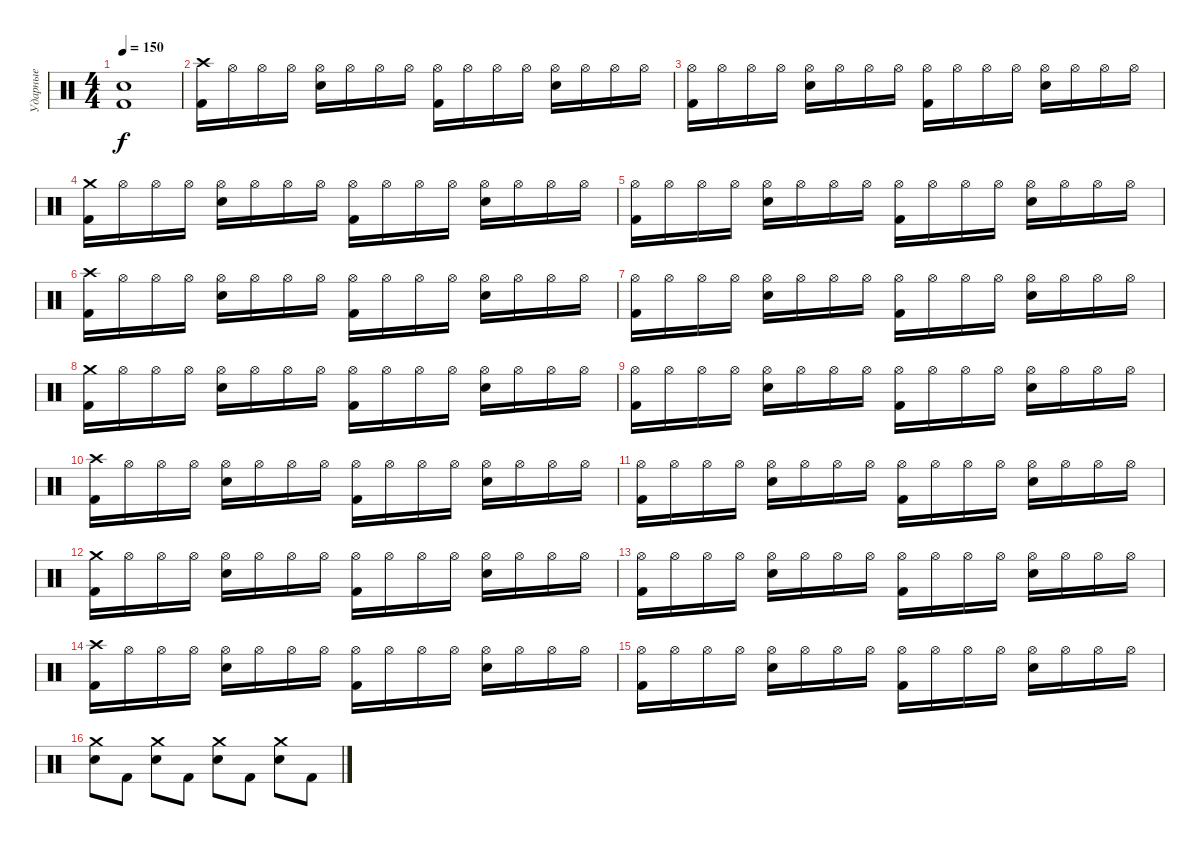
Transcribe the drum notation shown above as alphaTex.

\track ("Ударные" "Ударные") {instrument percussion}
\staff {score}
\articulation defaults
\ts (4 4)
\tempo 150
\clef neutral
\ks c
("Electric Snare (hit)" "Kick (hit) 2").1{dy f} |
("Crash high (hit)" "Kick (hit) 2").16 "Hi-Hat (open)".16 "Hi-Hat (open)".16 "Hi-Hat (open)".16 ("Hi-Hat (open)" "Electric Snare (hit)").16 "Hi-Hat (open)".16 "Hi-Hat (open)".16 "Hi-Hat (open)".16 ("Hi-Hat (open)" "Kick (hit) 2").16 "Hi-Hat (open)".16 "Hi-Hat (open)".16 "Hi-Hat (open)".16 ("Hi-Hat (open)" "Electric Snare (hit)").16 "Hi-Hat (open)".16 "Hi-Hat (open)".16 "Hi-Hat (open)".16 |
("Hi-Hat (open)" "Kick (hit) 2").16 "Hi-Hat (open)".16 "Hi-Hat (open)".16 "Hi-Hat (open)".16 ("Hi-Hat (open)" "Electric Snare (hit)").16 "Hi-Hat (open)".16 "Hi-Hat (open)".16 "Hi-Hat (open)".16 ("Hi-Hat (open)" "Kick (hit) 2").16 "Hi-Hat (open)".16 "Hi-Hat (open)".16 "Hi-Hat (open)".16 ("Hi-Hat (open)" "Electric Snare (hit)").16 "Hi-Hat (open)".16 "Hi-Hat (open)".16 "Hi-Hat (open)".16 |
("Crash medium (hit)" "Kick (hit) 2").16 "Hi-Hat (open)".16 "Hi-Hat (open)".16 "Hi-Hat (open)".16 ("Hi-Hat (open)" "Electric Snare (hit)").16 "Hi-Hat (open)".16 "Hi-Hat (open)".16 "Hi-Hat (open)".16 ("Hi-Hat (open)" "Kick (hit) 2").16 "Hi-Hat (open)".16 "Hi-Hat (open)".16 "Hi-Hat (open)".16 ("Hi-Hat (open)" "Electric Snare (hit)").16 "Hi-Hat (open)".16 "Hi-Hat (open)".16 "Hi-Hat (open)".16 |
("Hi-Hat (open)" "Kick (hit) 2").16 "Hi-Hat (open)".16 "Hi-Hat (open)".16 "Hi-Hat (open)".16 ("Hi-Hat (open)" "Electric Snare (hit)").16 "Hi-Hat (open)".16 "Hi-Hat (open)".16 "Hi-Hat (open)".16 ("Hi-Hat (open)" "Kick (hit) 2").16 "Hi-Hat (open)".16 "Hi-Hat (open)".16 "Hi-Hat (open)".16 ("Hi-Hat (open)" "Electric Snare (hit)").16 "Hi-Hat (open)".16 "Hi-Hat (open)".16 "Hi-Hat (open)".16 |
("Crash high (hit)" "Kick (hit) 2").16 "Hi-Hat (open)".16 "Hi-Hat (open)".16 "Hi-Hat (open)".16 ("Hi-Hat (open)" "Electric Snare (hit)").16 "Hi-Hat (open)".16 "Hi-Hat (open)".16 "Hi-Hat (open)".16 ("Hi-Hat (open)" "Kick (hit) 2").16 "Hi-Hat (open)".16 "Hi-Hat (open)".16 "Hi-Hat (open)".16 ("Hi-Hat (open)" "Electric Snare (hit)").16 "Hi-Hat (open)".16 "Hi-Hat (open)".16 "Hi-Hat (open)".16 |
("Hi-Hat (open)" "Kick (hit) 2").16 "Hi-Hat (open)".16 "Hi-Hat (open)".16 "Hi-Hat (open)".16 ("Hi-Hat (open)" "Electric Snare (hit)").16 "Hi-Hat (open)".16 "Hi-Hat (open)".16 "Hi-Hat (open)".16 ("Hi-Hat (open)" "Kick (hit) 2").16 "Hi-Hat (open)".16 "Hi-Hat (open)".16 "Hi-Hat (open)".16 ("Hi-Hat (open)" "Electric Snare (hit)").16 "Hi-Hat (open)".16 "Hi-Hat (open)".16 "Hi-Hat (open)".16 |
("Crash medium (hit)" "Kick (hit) 2").16 "Hi-Hat (open)".16 "Hi-Hat (open)".16 "Hi-Hat (open)".16 ("Hi-Hat (open)" "Electric Snare (hit)").16 "Hi-Hat (open)".16 "Hi-Hat (open)".16 "Hi-Hat (open)".16 ("Hi-Hat (open)" "Kick (hit) 2").16 "Hi-Hat (open)".16 "Hi-Hat (open)".16 "Hi-Hat (open)".16 ("Hi-Hat (open)" "Electric Snare (hit)").16 "Hi-Hat (open)".16 "Hi-Hat (open)".16 "Hi-Hat (open)".16 |
("Hi-Hat (open)" "Kick (hit) 2").16 "Hi-Hat (open)".16 "Hi-Hat (open)".16 "Hi-Hat (open)".16 ("Hi-Hat (open)" "Electric Snare (hit)").16 "Hi-Hat (open)".16 "Hi-Hat (open)".16 "Hi-Hat (open)".16 ("Hi-Hat (open)" "Kick (hit) 2").16 "Hi-Hat (open)".16 "Hi-Hat (open)".16 "Hi-Hat (open)".16 ("Hi-Hat (open)" "Electric Snare (hit)").16 "Hi-Hat (open)".16 "Hi-Hat (open)".16 "Hi-Hat (open)".16 |
("Crash high (hit)" "Kick (hit) 2").16 "Hi-Hat (open)".16 "Hi-Hat (open)".16 "Hi-Hat (open)".16 ("Hi-Hat (open)" "Electric Snare (hit)").16 "Hi-Hat (open)".16 "Hi-Hat (open)".16 "Hi-Hat (open)".16 ("Hi-Hat (open)" "Kick (hit) 2").16 "Hi-Hat (open)".16 "Hi-Hat (open)".16 "Hi-Hat (open)".16 ("Hi-Hat (open)" "Electric Snare (hit)").16 "Hi-Hat (open)".16 "Hi-Hat (open)".16 "Hi-Hat (open)".16 |
("Hi-Hat (open)" "Kick (hit) 2").16 "Hi-Hat (open)".16 "Hi-Hat (open)".16 "Hi-Hat (open)".16 ("Hi-Hat (open)" "Electric Snare (hit)").16 "Hi-Hat (open)".16 "Hi-Hat (open)".16 "Hi-Hat (open)".16 ("Hi-Hat (open)" "Kick (hit) 2").16 "Hi-Hat (open)".16 "Hi-Hat (open)".16 "Hi-Hat (open)".16 ("Hi-Hat (open)" "Electric Snare (hit)").16 "Hi-Hat (open)".16 "Hi-Hat (open)".16 "Hi-Hat (open)".16 |
("Crash medium (hit)" "Kick (hit) 2").16 "Hi-Hat (open)".16 "Hi-Hat (open)".16 "Hi-Hat (open)".16 ("Hi-Hat (open)" "Electric Snare (hit)").16 "Hi-Hat (open)".16 "Hi-Hat (open)".16 "Hi-Hat (open)".16 ("Hi-Hat (open)" "Kick (hit) 2").16 "Hi-Hat (open)".16 "Hi-Hat (open)".16 "Hi-Hat (open)".16 ("Hi-Hat (open)" "Electric Snare (hit)").16 "Hi-Hat (open)".16 "Hi-Hat (open)".16 "Hi-Hat (open)".16 |
("Hi-Hat (open)" "Kick (hit) 2").16 "Hi-Hat (open)".16 "Hi-Hat (open)".16 "Hi-Hat (open)".16 ("Hi-Hat (open)" "Electric Snare (hit)").16 "Hi-Hat (open)".16 "Hi-Hat (open)".16 "Hi-Hat (open)".16 ("Hi-Hat (open)" "Kick (hit) 2").16 "Hi-Hat (open)".16 "Hi-Hat (open)".16 "Hi-Hat (open)".16 ("Hi-Hat (open)" "Electric Snare (hit)").16 "Hi-Hat (open)".16 "Hi-Hat (open)".16 "Hi-Hat (open)".16 |
("Crash high (hit)" "Kick (hit) 2").16 "Hi-Hat (open)".16 "Hi-Hat (open)".16 "Hi-Hat (open)".16 ("Hi-Hat (open)" "Electric Snare (hit)").16 "Hi-Hat (open)".16 "Hi-Hat (open)".16 "Hi-Hat (open)".16 ("Hi-Hat (open)" "Kick (hit) 2").16 "Hi-Hat (open)".16 "Hi-Hat (open)".16 "Hi-Hat (open)".16 ("Hi-Hat (open)" "Electric Snare (hit)").16 "Hi-Hat (open)".16 "Hi-Hat (open)".16 "Hi-Hat (open)".16 |
("Hi-Hat (open)" "Kick (hit) 2").16 "Hi-Hat (open)".16 "Hi-Hat (open)".16 "Hi-Hat (open)".16 ("Hi-Hat (open)" "Electric Snare (hit)").16 "Hi-Hat (open)".16 "Hi-Hat (open)".16 "Hi-Hat (open)".16 ("Hi-Hat (open)" "Kick (hit) 2").16 "Hi-Hat (open)".16 "Hi-Hat (open)".16 "Hi-Hat (open)".16 ("Hi-Hat (open)" "Electric Snare (hit)").16 "Hi-Hat (open)".16 "Hi-Hat (open)".16 "Hi-Hat (open)".16 |
("Crash medium (hit)" "Electric Snare (hit)").8 "Kick (hit) 2".8 ("Crash medium (hit)" "Electric Snare (hit)").8 "Kick (hit) 2".8 ("Crash medium (hit)" "Electric Snare (hit)").8 "Kick (hit) 2".8 ("Crash medium (hit)" "Electric Snare (hit)").8 "Kick (hit) 2".8
